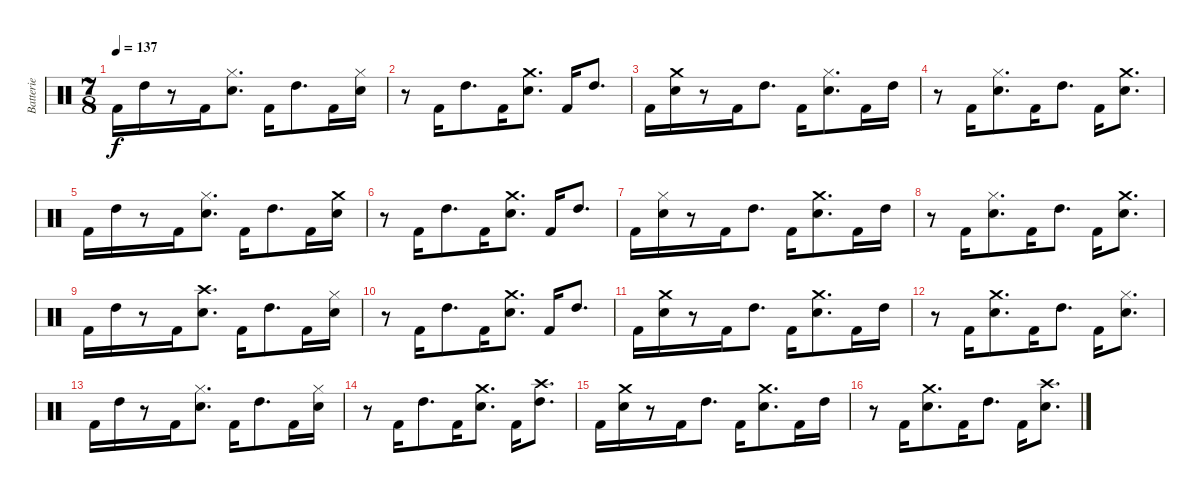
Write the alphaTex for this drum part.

\track ("Batterie" "Batterie") {instrument percussion}
\staff {score}
\articulation defaults
\ts (7 8)
\tempo 137
\clef neutral
\ks c "Kick (hit) 2".16{dy f} "High Tom (hit)".16
r.8 "Kick (hit) 2".16 ("Snare (hit) 2" "Hi-Hat (closed)").8{d} "Kick (hit) 2".16 "High Tom (hit)".8{d} "Kick (hit) 2".16 ("Snare (hit) 2" "Hi-Hat (closed)").16 |
r.8 "Kick (hit) 2".16 "High Tom (hit)".8{d} "Kick (hit) 2".16 ("Snare (hit) 2" "Crash medium (hit)").8{d} "Kick (hit) 2".16 "High Tom (hit)".8{d} |
"Kick (hit) 2".16 ("Snare (hit) 2" "Crash medium (hit)").16 r.8 "Kick (hit) 2".16 "High Tom (hit)".8{d} "Kick (hit) 2".16 ("Snare (hit) 2" "Hi-Hat (closed)").8{d} "Kick (hit) 2".16 "High Tom (hit)".16 |
r.8 "Kick (hit) 2".16 ("Snare (hit) 2" "Hi-Hat (closed)").8{d} "Kick (hit) 2".16 "High Tom (hit)".8{d} "Kick (hit) 2".16 ("Snare (hit) 2" "Crash medium (hit)").8{d} |
"Kick (hit) 2".16 "High Tom (hit)".16 r.8 "Kick (hit) 2".16 ("Snare (hit) 2" "Hi-Hat (closed)").8{d} "Kick (hit) 2".16 "High Tom (hit)".8{d} "Kick (hit) 2".16 ("Snare (hit) 2" "Crash medium (hit)").16 |
r.8 "Kick (hit) 2".16 "High Tom (hit)".8{d} "Kick (hit) 2".16 ("Snare (hit) 2" "Crash medium (hit)").8{d} "Kick (hit) 2".16 "High Tom (hit)".8{d} |
"Kick (hit) 2".16 ("Snare (hit) 2" "Hi-Hat (closed)").16 r.8 "Kick (hit) 2".16 "High Tom (hit)".8{d} "Kick (hit) 2".16 ("Snare (hit) 2" "Crash medium (hit)").8{d} "Kick (hit) 2".16 "High Tom (hit)".16 |
r.8 "Kick (hit) 2".16 ("Snare (hit) 2" "Hi-Hat (closed)").8{d} "Kick (hit) 2".16 "High Tom (hit)".8{d} "Kick (hit) 2".16 ("Snare (hit) 2" "Crash medium (hit)").8{d} |
"Kick (hit) 2".16 "High Tom (hit)".16 r.8 "Kick (hit) 2".16 ("Snare (hit) 2" "Crash high (hit)").8{d} "Kick (hit) 2".16 "High Tom (hit)".8{d} "Kick (hit) 2".16 ("Snare (hit) 2" "Hi-Hat (closed)").16 |
r.8 "Kick (hit) 2".16 "High Tom (hit)".8{d} "Kick (hit) 2".16 ("Snare (hit) 2" "Crash medium (hit)").8{d} "Kick (hit) 2".16 "High Tom (hit)".8{d} |
"Kick (hit) 2".16 ("Snare (hit) 2" "Crash medium (hit)").16 r.8 "Kick (hit) 2".16 "High Tom (hit)".8{d} "Kick (hit) 2".16 ("Snare (hit) 2" "Crash medium (hit)").8{d} "Kick (hit) 2".16 "High Tom (hit)".16 |
r.8 "Kick (hit) 2".16 ("Snare (hit) 2" "Crash medium (hit)").8{d} "Kick (hit) 2".16 "High Tom (hit)".8{d} "Kick (hit) 2".16 ("Snare (hit) 2" "Hi-Hat (closed)").8{d} |
"Kick (hit) 2".16 "High Tom (hit)".16 r.8 "Kick (hit) 2".16 ("Snare (hit) 2" "Hi-Hat (closed)").8{d} "Kick (hit) 2".16 "High Tom (hit)".8{d} "Kick (hit) 2".16 ("Snare (hit) 2" "Hi-Hat (closed)").16 |
r.8 "Kick (hit) 2".16 "High Tom (hit)".8{d} "Kick (hit) 2".16 ("Snare (hit) 2" "Crash medium (hit)").8{d} "Kick (hit) 2".16 ("High Tom (hit)" "Crash high (hit)").8{d} |
"Kick (hit) 2".16 ("Snare (hit) 2" "Crash medium (hit)").16 r.8 "Kick (hit) 2".16 "High Tom (hit)".8{d} "Kick (hit) 2".16 ("Snare (hit) 2" "Crash medium (hit)").8{d} "Kick (hit) 2".16 "High Tom (hit)".16 |
r.8 "Kick (hit) 2".16 ("Snare (hit) 2" "Crash medium (hit)").8{d} "Kick (hit) 2".16 "High Tom (hit)".8{d} "Kick (hit) 2".16 ("Snare (hit) 2" "Crash high (hit)").8{d}
